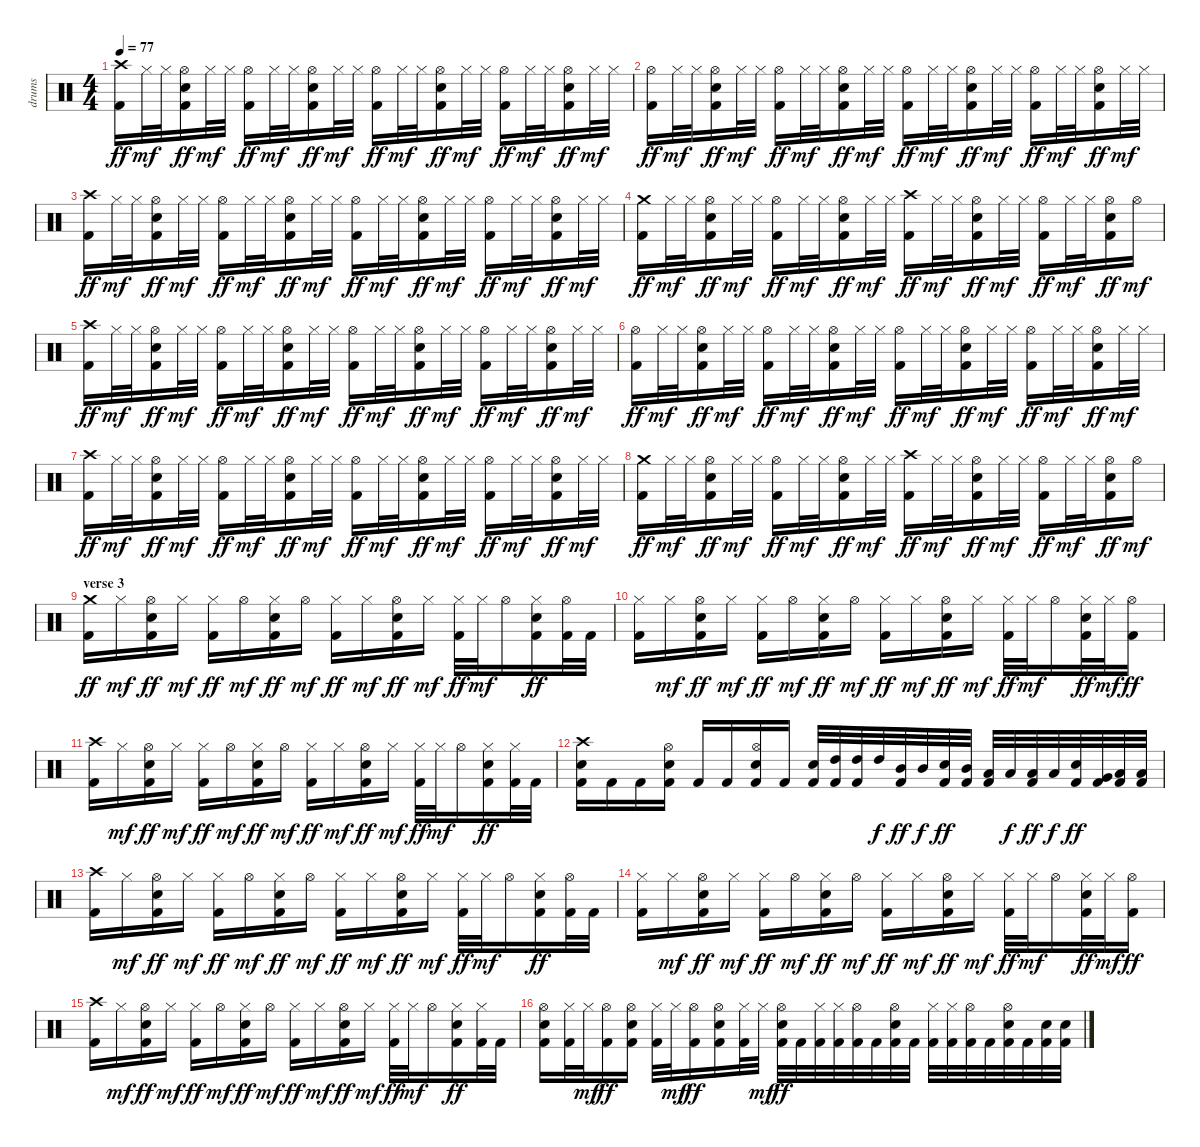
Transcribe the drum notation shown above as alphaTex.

\track ("drums" "drums") {instrument percussion}
\staff {score}
\articulation defaults
\ts (4 4)
\section ("" "")
\tempo 77
\clef neutral
\ks c
("Crash high (hit)" "Kick (hit) 2").16{dy ff} "Hi-Hat (closed)".32{dy mf} "Hi-Hat (closed)".32 ("Hi-Hat (open)" "Snare (hit) 2" "Kick (hit) 2").16{dy ff} "Hi-Hat (closed)".32{dy mf} "Hi-Hat (closed)".32 ("Hi-Hat (open)" "Kick (hit) 2").16{dy ff} "Hi-Hat (closed)".32{dy mf} "Hi-Hat (closed)".32 ("Hi-Hat (open)" "Snare (hit) 2" "Kick (hit) 2").16{dy ff} "Hi-Hat (closed)".32{dy mf} "Hi-Hat (closed)".32 ("Hi-Hat (open)" "Kick (hit) 2").16{dy ff} "Hi-Hat (closed)".32{dy mf} "Hi-Hat (closed)".32 ("Hi-Hat (open)" "Snare (hit) 2" "Kick (hit) 2").16{dy ff} "Hi-Hat (closed)".32{dy mf} "Hi-Hat (closed)".32 ("Hi-Hat (open)" "Kick (hit) 2").16{dy ff} "Hi-Hat (closed)".32{dy mf} "Hi-Hat (closed)".32 ("Hi-Hat (open)" "Snare (hit) 2" "Kick (hit) 2").16{dy ff} "Hi-Hat (closed)".32{dy mf} "Hi-Hat (closed)".32 |
("Hi-Hat (open)" "Kick (hit) 2").16{dy ff} "Hi-Hat (closed)".32{dy mf} "Hi-Hat (closed)".32 ("Hi-Hat (open)" "Snare (hit) 2" "Kick (hit) 2").16{dy ff} "Hi-Hat (closed)".32{dy mf} "Hi-Hat (closed)".32 ("Hi-Hat (open)" "Kick (hit) 2").16{dy ff} "Hi-Hat (closed)".32{dy mf} "Hi-Hat (closed)".32 ("Hi-Hat (open)" "Snare (hit) 2" "Kick (hit) 2").16{dy ff} "Hi-Hat (closed)".32{dy mf} "Hi-Hat (closed)".32 ("Hi-Hat (open)" "Kick (hit) 2").16{dy ff} "Hi-Hat (closed)".32{dy mf} "Hi-Hat (closed)".32 ("Hi-Hat (open)" "Snare (hit) 2" "Kick (hit) 2").16{dy ff} "Hi-Hat (closed)".32{dy mf} "Hi-Hat (closed)".32 ("Hi-Hat (open)" "Kick (hit) 2").16{dy ff} "Hi-Hat (closed)".32{dy mf} "Hi-Hat (closed)".32 ("Hi-Hat (open)" "Snare (hit) 2" "Kick (hit) 2").16{dy ff} "Hi-Hat (closed)".32{dy mf} "Hi-Hat (closed)".32 |
("Crash high (hit)" "Kick (hit) 2").16{dy ff} "Hi-Hat (closed)".32{dy mf} "Hi-Hat (closed)".32 ("Hi-Hat (open)" "Snare (hit) 2" "Kick (hit) 2").16{dy ff} "Hi-Hat (closed)".32{dy mf} "Hi-Hat (closed)".32 ("Hi-Hat (open)" "Kick (hit) 2").16{dy ff} "Hi-Hat (closed)".32{dy mf} "Hi-Hat (closed)".32 ("Hi-Hat (open)" "Snare (hit) 2" "Kick (hit) 2").16{dy ff} "Hi-Hat (closed)".32{dy mf} "Hi-Hat (closed)".32 ("Hi-Hat (open)" "Kick (hit) 2").16{dy ff} "Hi-Hat (closed)".32{dy mf} "Hi-Hat (closed)".32 ("Hi-Hat (open)" "Snare (hit) 2" "Kick (hit) 2").16{dy ff} "Hi-Hat (closed)".32{dy mf} "Hi-Hat (closed)".32 ("Hi-Hat (open)" "Kick (hit) 2").16{dy ff} "Hi-Hat (closed)".32{dy mf} "Hi-Hat (closed)".32 ("Hi-Hat (open)" "Snare (hit) 2" "Kick (hit) 2").16{dy ff} "Hi-Hat (closed)".32{dy mf} "Hi-Hat (closed)".32 |
("Crash medium (hit)" "Kick (hit) 2").16{dy ff} "Hi-Hat (closed)".32{dy mf} "Hi-Hat (closed)".32 ("Hi-Hat (open)" "Snare (hit) 2" "Kick (hit) 2").16{dy ff} "Hi-Hat (closed)".32{dy mf} "Hi-Hat (closed)".32 ("Hi-Hat (open)" "Kick (hit) 2").16{dy ff} "Hi-Hat (closed)".32{dy mf} "Hi-Hat (closed)".32 ("Hi-Hat (open)" "Snare (hit) 2" "Kick (hit) 2").16{dy ff} "Hi-Hat (closed)".32{dy mf} "Hi-Hat (closed)".32 ("Crash high (hit)" "Kick (hit) 2").16{dy ff} "Hi-Hat (closed)".32{dy mf} "Hi-Hat (closed)".32 ("Hi-Hat (open)" "Snare (hit) 2" "Kick (hit) 2").16{dy ff} "Hi-Hat (closed)".32{dy mf} "Hi-Hat (closed)".32 ("Hi-Hat (open)" "Kick (hit) 2").16{dy ff} "Hi-Hat (closed)".32{dy mf} "Hi-Hat (closed)".32 ("Hi-Hat (open)" "Snare (hit) 2" "Kick (hit) 2").16{dy ff} "Hi-Hat (open)".16{dy mf} |
("Crash high (hit)" "Kick (hit) 2").16{dy ff} "Hi-Hat (closed)".32{dy mf} "Hi-Hat (closed)".32 ("Hi-Hat (open)" "Snare (hit) 2" "Kick (hit) 2").16{dy ff} "Hi-Hat (closed)".32{dy mf} "Hi-Hat (closed)".32 ("Hi-Hat (open)" "Kick (hit) 2").16{dy ff} "Hi-Hat (closed)".32{dy mf} "Hi-Hat (closed)".32 ("Hi-Hat (open)" "Snare (hit) 2" "Kick (hit) 2").16{dy ff} "Hi-Hat (closed)".32{dy mf} "Hi-Hat (closed)".32 ("Hi-Hat (open)" "Kick (hit) 2").16{dy ff} "Hi-Hat (closed)".32{dy mf} "Hi-Hat (closed)".32 ("Hi-Hat (open)" "Snare (hit) 2" "Kick (hit) 2").16{dy ff} "Hi-Hat (closed)".32{dy mf} "Hi-Hat (closed)".32 ("Hi-Hat (open)" "Kick (hit) 2").16{dy ff} "Hi-Hat (closed)".32{dy mf} "Hi-Hat (closed)".32 ("Hi-Hat (open)" "Snare (hit) 2" "Kick (hit) 2").16{dy ff} "Hi-Hat (closed)".32{dy mf} "Hi-Hat (closed)".32 |
("Hi-Hat (open)" "Kick (hit) 2").16{dy ff} "Hi-Hat (closed)".32{dy mf} "Hi-Hat (closed)".32 ("Hi-Hat (open)" "Snare (hit) 2" "Kick (hit) 2").16{dy ff} "Hi-Hat (closed)".32{dy mf} "Hi-Hat (closed)".32 ("Hi-Hat (open)" "Kick (hit) 2").16{dy ff} "Hi-Hat (closed)".32{dy mf} "Hi-Hat (closed)".32 ("Hi-Hat (open)" "Snare (hit) 2" "Kick (hit) 2").16{dy ff} "Hi-Hat (closed)".32{dy mf} "Hi-Hat (closed)".32 ("Hi-Hat (open)" "Kick (hit) 2").16{dy ff} "Hi-Hat (closed)".32{dy mf} "Hi-Hat (closed)".32 ("Hi-Hat (open)" "Snare (hit) 2" "Kick (hit) 2").16{dy ff} "Hi-Hat (closed)".32{dy mf} "Hi-Hat (closed)".32 ("Hi-Hat (open)" "Kick (hit) 2").16{dy ff} "Hi-Hat (closed)".32{dy mf} "Hi-Hat (closed)".32 ("Hi-Hat (open)" "Snare (hit) 2" "Kick (hit) 2").16{dy ff} "Hi-Hat (closed)".32{dy mf} "Hi-Hat (closed)".32 |
("Crash high (hit)" "Kick (hit) 2").16{dy ff} "Hi-Hat (closed)".32{dy mf} "Hi-Hat (closed)".32 ("Hi-Hat (open)" "Snare (hit) 2" "Kick (hit) 2").16{dy ff} "Hi-Hat (closed)".32{dy mf} "Hi-Hat (closed)".32 ("Hi-Hat (open)" "Kick (hit) 2").16{dy ff} "Hi-Hat (closed)".32{dy mf} "Hi-Hat (closed)".32 ("Hi-Hat (open)" "Snare (hit) 2" "Kick (hit) 2").16{dy ff} "Hi-Hat (closed)".32{dy mf} "Hi-Hat (closed)".32 ("Hi-Hat (open)" "Kick (hit) 2").16{dy ff} "Hi-Hat (closed)".32{dy mf} "Hi-Hat (closed)".32 ("Hi-Hat (open)" "Snare (hit) 2" "Kick (hit) 2").16{dy ff} "Hi-Hat (closed)".32{dy mf} "Hi-Hat (closed)".32 ("Hi-Hat (open)" "Kick (hit) 2").16{dy ff} "Hi-Hat (closed)".32{dy mf} "Hi-Hat (closed)".32 ("Hi-Hat (open)" "Snare (hit) 2" "Kick (hit) 2").16{dy ff} "Hi-Hat (closed)".32{dy mf} "Hi-Hat (closed)".32 |
("Crash medium (hit)" "Kick (hit) 2").16{dy ff} "Hi-Hat (closed)".32{dy mf} "Hi-Hat (closed)".32 ("Hi-Hat (open)" "Snare (hit) 2" "Kick (hit) 2").16{dy ff} "Hi-Hat (closed)".32{dy mf} "Hi-Hat (closed)".32 ("Hi-Hat (open)" "Kick (hit) 2").16{dy ff} "Hi-Hat (closed)".32{dy mf} "Hi-Hat (closed)".32 ("Hi-Hat (open)" "Snare (hit) 2" "Kick (hit) 2").16{dy ff} "Hi-Hat (closed)".32{dy mf} "Hi-Hat (closed)".32 ("Crash high (hit)" "Kick (hit) 2").16{dy ff} "Hi-Hat (closed)".32{dy mf} "Hi-Hat (closed)".32 ("Hi-Hat (open)" "Snare (hit) 2" "Kick (hit) 2").16{dy ff} "Hi-Hat (closed)".32{dy mf} "Hi-Hat (closed)".32 ("Hi-Hat (open)" "Kick (hit) 2").16{dy ff} "Hi-Hat (closed)".32{dy mf} "Hi-Hat (closed)".32 ("Hi-Hat (open)" "Snare (hit) 2" "Kick (hit) 2").16{dy ff} "Hi-Hat (open)".16{dy mf} |
\section ("" "verse 3")
("Crash medium (hit)" "Kick (hit) 2").16{dy ff} "Hi-Hat (closed)".16{dy mf} ("Hi-Hat (open)" "Snare (hit) 2" "Kick (hit) 2").16{dy ff} "Hi-Hat (closed)".16{dy mf} ("Hi-Hat (closed)" "Kick (hit) 2").16{dy ff} "Hi-Hat (open)".16{dy mf} ("Hi-Hat (closed)" "Snare (hit) 2" "Kick (hit) 2").16{dy ff} "Hi-Hat (open)".16{dy mf} ("Hi-Hat (closed)" "Kick (hit) 2").16{dy ff} "Hi-Hat (closed)".16{dy mf} ("Hi-Hat (open)" "Snare (hit) 2" "Kick (hit) 2").16{dy ff} "Hi-Hat (closed)".16{dy mf} ("Hi-Hat (closed)" "Kick (hit) 2").32{dy ff} "Hi-Hat (closed)".32{dy mf} "Hi-Hat (open)".16 ("Hi-Hat (closed)" "Snare (hit) 2" "Kick (hit) 2").16{dy ff} ("Hi-Hat (open)" "Kick (hit) 2").32 "Kick (hit) 2".32 |
("Hi-Hat (closed)" "Kick (hit) 2").16 "Hi-Hat (closed)".16{dy mf} ("Hi-Hat (open)" "Snare (hit) 2" "Kick (hit) 2").16{dy ff} "Hi-Hat (closed)".16{dy mf} ("Hi-Hat (closed)" "Kick (hit) 2").16{dy ff} "Hi-Hat (open)".16{dy mf} ("Hi-Hat (closed)" "Snare (hit) 2" "Kick (hit) 2").16{dy ff} "Hi-Hat (open)".16{dy mf} ("Hi-Hat (closed)" "Kick (hit) 2").16{dy ff} "Hi-Hat (closed)".16{dy mf} ("Hi-Hat (open)" "Snare (hit) 2" "Kick (hit) 2").16{dy ff} "Hi-Hat (closed)".16{dy mf} ("Hi-Hat (closed)" "Kick (hit) 2").32{dy ff} "Hi-Hat (closed)".32{dy mf} "Hi-Hat (open)".16 ("Hi-Hat (closed)" "Snare (hit) 2" "Kick (hit) 2").32{dy ff} "Hi-Hat (closed)".32{dy mf} ("Hi-Hat (open)" "Kick (hit) 2").16{dy ff} |
("Crash high (hit)" "Kick (hit) 2").16 "Hi-Hat (closed)".16{dy mf} ("Hi-Hat (open)" "Snare (hit) 2" "Kick (hit) 2").16{dy ff} "Hi-Hat (closed)".16{dy mf} ("Hi-Hat (closed)" "Kick (hit) 2").16{dy ff} "Hi-Hat (open)".16{dy mf} ("Hi-Hat (closed)" "Snare (hit) 2" "Kick (hit) 2").16{dy ff} "Hi-Hat (open)".16{dy mf} ("Hi-Hat (closed)" "Kick (hit) 2").16{dy ff} "Hi-Hat (closed)".16{dy mf} ("Hi-Hat (open)" "Snare (hit) 2" "Kick (hit) 2").16{dy ff} "Hi-Hat (closed)".16{dy mf} ("Hi-Hat (closed)" "Kick (hit) 2").32{dy ff} "Hi-Hat (closed)".32{dy mf} "Hi-Hat (open)".16 ("Hi-Hat (closed)" "Snare (hit) 2" "Kick (hit) 2").16{dy ff} ("Hi-Hat (closed)" "Kick (hit) 2").32 "Kick (hit) 2".32 |
("Crash high (hit)" "Snare (hit) 2" "Kick (hit) 2").16 "Kick (hit) 2".16 "Kick (hit) 2".16 ("Hi-Hat (open)" "Snare (hit) 2" "Kick (hit) 2").16 "Kick (hit) 2".16 "Kick (hit) 2".16 ("Hi-Hat (open)" "Snare (hit) 2" "Kick (hit) 2").16 "Kick (hit) 2".16 ("Snare (hit) 2" "Kick (hit) 2").32 ("High Tom (hit)" "Kick (hit) 2").32 ("High Tom (hit)" "Kick (hit) 2").32 "High Tom (hit)".32{dy f} ("Mid Tom (hit)" "Kick (hit) 2").32{dy ff} "Mid Tom (hit)".32{dy f} ("Snare (hit) 2" "Kick (hit) 2").32{dy ff} ("Mid Tom (hit)" "Kick (hit) 2").32 ("Low Tom (hit)" "Kick (hit) 2").32 "Low Tom (hit)".32{dy f} ("Low Tom (hit)" "Kick (hit) 2").32{dy ff} "Low Tom (hit)".32{dy f} ("Snare (hit) 2" "Kick (hit) 2").32{dy ff} ("Very Low Tom (hit)" "Kick (hit) 2").32 ("Low Floor Tom (hit)" "Kick (hit) 2").32 ("Low Floor Tom (hit)" "Kick (hit) 2").32 |
("Crash high (hit)" "Kick (hit) 2").16 "Hi-Hat (closed)".16{dy mf} ("Hi-Hat (open)" "Snare (hit) 2" "Kick (hit) 2").16{dy ff} "Hi-Hat (closed)".16{dy mf} ("Hi-Hat (closed)" "Kick (hit) 2").16{dy ff} "Hi-Hat (open)".16{dy mf} ("Hi-Hat (closed)" "Snare (hit) 2" "Kick (hit) 2").16{dy ff} "Hi-Hat (open)".16{dy mf} ("Hi-Hat (closed)" "Kick (hit) 2").16{dy ff} "Hi-Hat (closed)".16{dy mf} ("Hi-Hat (open)" "Snare (hit) 2" "Kick (hit) 2").16{dy ff} "Hi-Hat (closed)".16{dy mf} ("Hi-Hat (closed)" "Kick (hit) 2").32{dy ff} "Hi-Hat (closed)".32{dy mf} "Hi-Hat (open)".16 ("Hi-Hat (closed)" "Snare (hit) 2" "Kick (hit) 2").16{dy ff} ("Hi-Hat (open)" "Kick (hit) 2").32 "Kick (hit) 2".32 |
("Hi-Hat (closed)" "Kick (hit) 2").16 "Hi-Hat (closed)".16{dy mf} ("Hi-Hat (open)" "Snare (hit) 2" "Kick (hit) 2").16{dy ff} "Hi-Hat (closed)".16{dy mf} ("Hi-Hat (closed)" "Kick (hit) 2").16{dy ff} "Hi-Hat (open)".16{dy mf} ("Hi-Hat (closed)" "Snare (hit) 2" "Kick (hit) 2").16{dy ff} "Hi-Hat (open)".16{dy mf} ("Hi-Hat (closed)" "Kick (hit) 2").16{dy ff} "Hi-Hat (closed)".16{dy mf} ("Hi-Hat (open)" "Snare (hit) 2" "Kick (hit) 2").16{dy ff} "Hi-Hat (closed)".16{dy mf} ("Hi-Hat (closed)" "Kick (hit) 2").32{dy ff} "Hi-Hat (closed)".32{dy mf} "Hi-Hat (open)".16 ("Hi-Hat (closed)" "Snare (hit) 2" "Kick (hit) 2").32{dy ff} "Hi-Hat (closed)".32{dy mf} ("Hi-Hat (open)" "Kick (hit) 2").16{dy ff} |
("Crash high (hit)" "Kick (hit) 2").16 "Hi-Hat (closed)".16{dy mf} ("Hi-Hat (open)" "Snare (hit) 2" "Kick (hit) 2").16{dy ff} "Hi-Hat (closed)".16{dy mf} ("Hi-Hat (closed)" "Kick (hit) 2").16{dy ff} "Hi-Hat (open)".16{dy mf} ("Hi-Hat (closed)" "Snare (hit) 2" "Kick (hit) 2").16{dy ff} "Hi-Hat (open)".16{dy mf} ("Hi-Hat (closed)" "Kick (hit) 2").16{dy ff} "Hi-Hat (closed)".16{dy mf} ("Hi-Hat (open)" "Snare (hit) 2" "Kick (hit) 2").16{dy ff} "Hi-Hat (closed)".16{dy mf} ("Hi-Hat (closed)" "Kick (hit) 2").32{dy ff} "Hi-Hat (closed)".32{dy mf} "Hi-Hat (open)".16 ("Hi-Hat (closed)" "Snare (hit) 2" "Kick (hit) 2").16{dy ff} ("Hi-Hat (closed)" "Kick (hit) 2").32 "Kick (hit) 2".32 |
("Hi-Hat (open)" "Snare (hit) 2" "Kick (hit) 2").16 ("Hi-Hat (closed)" "Kick (hit) 2").32 "Hi-Hat (closed)".32{dy mf} ("Hi-Hat (open)" "Kick (hit) 2").16{dy ff} ("Hi-Hat (open)" "Snare (hit) 2" "Kick (hit) 2").16 ("Hi-Hat (closed)" "Kick (hit) 2").32 "Hi-Hat (closed)".32{dy mf} ("Hi-Hat (open)" "Kick (hit) 2").16{dy ff} ("Hi-Hat (open)" "Snare (hit) 2" "Kick (hit) 2").16 ("Hi-Hat (closed)" "Kick (hit) 2").32 "Hi-Hat (closed)".32{dy mf} ("Hi-Hat (open)" "Snare (hit) 2" "Kick (hit) 2").32{dy ff} "Kick (hit) 2".32 ("Hi-Hat (closed)" "Kick (hit) 2").32 ("Hi-Hat (closed)" "Kick (hit) 2").32 ("Hi-Hat (open)" "Kick (hit) 2").32 "Kick (hit) 2".32 ("Hi-Hat (open)" "Snare (hit) 2" "Kick (hit) 2").32 "Kick (hit) 2".32 ("Hi-Hat (closed)" "Kick (hit) 2").32 ("Hi-Hat (closed)" "Kick (hit) 2").32 ("Hi-Hat (open)" "Kick (hit) 2").32 "Kick (hit) 2".32 ("Hi-Hat (open)" "Snare (hit) 2" "Kick (hit) 2").32 "Kick (hit) 2".32 ("Snare (hit) 2" "Kick (hit) 2").32 ("Snare (hit) 2" "Kick (hit) 2").32
